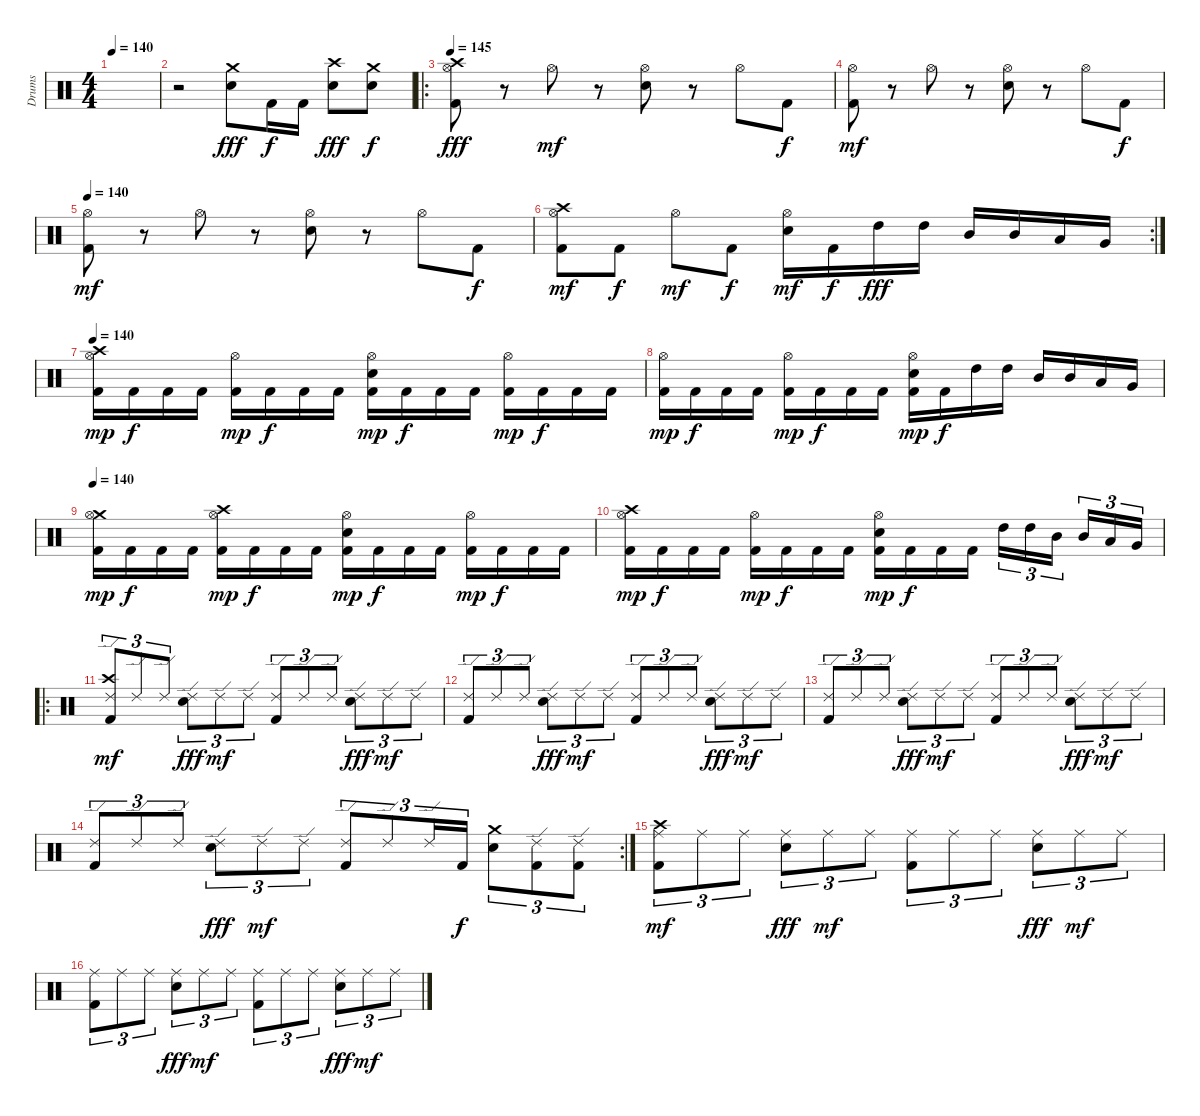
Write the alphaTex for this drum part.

\track ("Drums" "Drums") {instrument percussion}
\staff {score}
\articulation defaults
\ts (4 4)
\tempo 140
\clef neutral
\ks c
|
r.2 ("Crash medium (hit)" "Electric Snare (hit)").8{dy fff} "Kick (hit) 2".16{dy f} "Kick (hit) 2".16 ("Crash high (hit)" "Electric Snare (hit)").8{dy fff} ("Crash medium (hit)" "Electric Snare (hit)").8{dy f} |
\ro
\tempo 145
("Crash high (hit)" "Hi-Hat (open)" "Kick (hit) 2").8{dy fff} r.8 "Hi-Hat (open)".8{dy mf} r.8 ("Hi-Hat (open)" "Electric Snare (hit)").8 r.8 "Hi-Hat (open)".8 "Kick (hit) 2".8{dy f} |
("Hi-Hat (open)" "Kick (hit) 2").8{dy mf} r.8 "Hi-Hat (open)".8 r.8 ("Hi-Hat (open)" "Electric Snare (hit)").8 r.8 "Hi-Hat (open)".8 "Kick (hit) 2".8{dy f} |
\tempo 140
("Hi-Hat (open)" "Kick (hit) 2").8{dy mf} r.8 "Hi-Hat (open)".8 r.8 ("Hi-Hat (open)" "Electric Snare (hit)").8 r.8 "Hi-Hat (open)".8 "Kick (hit) 2".8{dy f} |
\rc 2
("Crash high (hit)" "Hi-Hat (open)" "Kick (hit) 2").8{dy mf} "Kick (hit) 2".8{dy f} "Hi-Hat (open)".8{dy mf} "Kick (hit) 2".8{dy f} ("Hi-Hat (open)" "Electric Snare (hit)").16{dy mf} "Kick (hit) 2".16{dy f} "High Tom (hit)".16{dy fff} "High Tom (hit)".16 "Mid Tom (hit)".16 "Mid Tom (hit)".16 "Low Tom (hit)".16 "Very Low Tom (hit)".16 |
\tempo 140
("Crash high (hit)" "Hi-Hat (open)" "Kick (hit) 2").16{dy mp} "Kick (hit) 2".16{dy f} "Kick (hit) 2".16 "Kick (hit) 2".16 ("Hi-Hat (open)" "Kick (hit) 2").16{dy mp} "Kick (hit) 2".16{dy f} "Kick (hit) 2".16 "Kick (hit) 2".16 ("Hi-Hat (open)" "Electric Snare (hit)" "Kick (hit) 2").16{dy mp} "Kick (hit) 2".16{dy f} "Kick (hit) 2".16 "Kick (hit) 2".16 ("Hi-Hat (open)" "Kick (hit) 2").16{dy mp} "Kick (hit) 2".16{dy f} "Kick (hit) 2".16 "Kick (hit) 2".16 |
("Hi-Hat (open)" "Kick (hit) 2").16{dy mp} "Kick (hit) 2".16{dy f} "Kick (hit) 2".16 "Kick (hit) 2".16 ("Hi-Hat (open)" "Kick (hit) 2").16{dy mp} "Kick (hit) 2".16{dy f} "Kick (hit) 2".16 "Kick (hit) 2".16 ("Hi-Hat (open)" "Electric Snare (hit)" "Kick (hit) 2").16{dy mp} "Kick (hit) 2".16{dy f} "High Tom (hit)".16 "High Tom (hit)".16 "Mid Tom (hit)".16 "Mid Tom (hit)".16 "Low Tom (hit)".16 "Very Low Tom (hit)".16 |
\tempo 140
("Crash medium (hit)" "Hi-Hat (open)" "Kick (hit) 2").16{dy mp} "Kick (hit) 2".16{dy f} "Kick (hit) 2".16 "Kick (hit) 2".16 ("Crash high (hit)" "Hi-Hat (open)" "Kick (hit) 2").16{dy mp} "Kick (hit) 2".16{dy f} "Kick (hit) 2".16 "Kick (hit) 2".16 ("Hi-Hat (open)" "Electric Snare (hit)" "Kick (hit) 2").16{dy mp} "Kick (hit) 2".16{dy f} "Kick (hit) 2".16 "Kick (hit) 2".16 ("Hi-Hat (open)" "Kick (hit) 2").16{dy mp} "Kick (hit) 2".16{dy f} "Kick (hit) 2".16 "Kick (hit) 2".16 |
("Crash high (hit)" "Hi-Hat (open)" "Kick (hit) 2").16{dy mp} "Kick (hit) 2".16{dy f} "Kick (hit) 2".16 "Kick (hit) 2".16 ("Hi-Hat (open)" "Kick (hit) 2").16{dy mp} "Kick (hit) 2".16{dy f} "Kick (hit) 2".16 "Kick (hit) 2".16 ("Hi-Hat (open)" "Electric Snare (hit)" "Kick (hit) 2").16{dy mp} "Kick (hit) 2".16{dy f} "Kick (hit) 2".16 "Kick (hit) 2".16 "High Tom (hit)".16{tu (3 2)} "High Tom (hit)".16{tu (3 2)} "Mid Tom (hit)".16{tu (3 2)} "Mid Tom (hit)".16{tu (3 2)} "Low Tom (hit)".16{tu (3 2)} "Very Low Tom (hit)".16{tu (3 2)} |
\ro
("Crash high (hit)" "Ride (edge) 2" "Kick (hit) 2").8{tu (3 2) dy mf} "Ride (edge) 2".8{tu (3 2)} "Ride (edge) 2".8{tu (3 2)} ("Ride (edge) 2" "Electric Snare (hit)").8{tu (3 2) dy fff} "Ride (edge) 2".8{tu (3 2) dy mf} "Ride (edge) 2".8{tu (3 2)} ("Ride (edge) 2" "Kick (hit) 2").8{tu (3 2)} "Ride (edge) 2".8{tu (3 2)} "Ride (edge) 2".8{tu (3 2)} ("Ride (edge) 2" "Electric Snare (hit)").8{tu (3 2) dy fff} "Ride (edge) 2".8{tu (3 2) dy mf} "Ride (edge) 2".8{tu (3 2)} |
("Ride (edge) 2" "Kick (hit) 2").8{tu (3 2)} "Ride (edge) 2".8{tu (3 2)} "Ride (edge) 2".8{tu (3 2)} ("Ride (edge) 2" "Electric Snare (hit)").8{tu (3 2) dy fff} "Ride (edge) 2".8{tu (3 2) dy mf} "Ride (edge) 2".8{tu (3 2)} ("Ride (edge) 2" "Kick (hit) 2").8{tu (3 2)} "Ride (edge) 2".8{tu (3 2)} "Ride (edge) 2".8{tu (3 2)} ("Ride (edge) 2" "Electric Snare (hit)").8{tu (3 2) dy fff} "Ride (edge) 2".8{tu (3 2) dy mf} "Ride (edge) 2".8{tu (3 2)} |
("Ride (edge) 2" "Kick (hit) 2").8{tu (3 2)} "Ride (edge) 2".8{tu (3 2)} "Ride (edge) 2".8{tu (3 2)} ("Ride (edge) 2" "Electric Snare (hit)").8{tu (3 2) dy fff} "Ride (edge) 2".8{tu (3 2) dy mf} "Ride (edge) 2".8{tu (3 2)} ("Ride (edge) 2" "Kick (hit) 2").8{tu (3 2)} "Ride (edge) 2".8{tu (3 2)} "Ride (edge) 2".8{tu (3 2)} ("Ride (edge) 2" "Electric Snare (hit)").8{tu (3 2) dy fff} "Ride (edge) 2".8{tu (3 2) dy mf} "Ride (edge) 2".8{tu (3 2)} |
\rc 2
("Ride (edge) 2" "Kick (hit) 2").8{tu (3 2)} "Ride (edge) 2".8{tu (3 2)} "Ride (edge) 2".8{tu (3 2)} ("Ride (edge) 2" "Electric Snare (hit)").8{tu (3 2) dy fff} "Ride (edge) 2".8{tu (3 2) dy mf} "Ride (edge) 2".8{tu (3 2)} ("Ride (edge) 2" "Kick (hit) 2").8{tu (3 2)} "Ride (edge) 2".8{tu (3 2)} "Ride (edge) 2".16{tu (3 2)} "Kick (hit) 2".16{tu (3 2) dy f} ("Crash medium (hit)" "Electric Snare (hit)").8{tu (3 2)} ("Ride (edge) 2" "Kick (hit) 2").8{tu (3 2)} ("Ride (edge) 2" "Kick (hit) 2").8{tu (3 2)} |
("Crash high (hit)" "Ride (middle)" "Kick (hit) 2").8{tu (3 2) dy mf} "Ride (middle)".8{tu (3 2)} "Ride (middle)".8{tu (3 2)} ("Ride (middle)" "Electric Snare (hit)").8{tu (3 2) dy fff} "Ride (middle)".8{tu (3 2) dy mf} "Ride (middle)".8{tu (3 2)} ("Ride (middle)" "Kick (hit) 2").8{tu (3 2)} "Ride (middle)".8{tu (3 2)} "Ride (middle)".8{tu (3 2)} ("Ride (middle)" "Electric Snare (hit)").8{tu (3 2) dy fff} "Ride (middle)".8{tu (3 2) dy mf} "Ride (middle)".8{tu (3 2)} |
("Ride (middle)" "Kick (hit) 2").8{tu (3 2)} "Ride (middle)".8{tu (3 2)} "Ride (middle)".8{tu (3 2)} ("Ride (middle)" "Electric Snare (hit)").8{tu (3 2) dy fff} "Ride (middle)".8{tu (3 2) dy mf} "Ride (middle)".8{tu (3 2)} ("Ride (middle)" "Kick (hit) 2").8{tu (3 2)} "Ride (middle)".8{tu (3 2)} "Ride (middle)".8{tu (3 2)} ("Ride (middle)" "Electric Snare (hit)").8{tu (3 2) dy fff} "Ride (middle)".8{tu (3 2) dy mf} "Ride (middle)".8{tu (3 2)}
